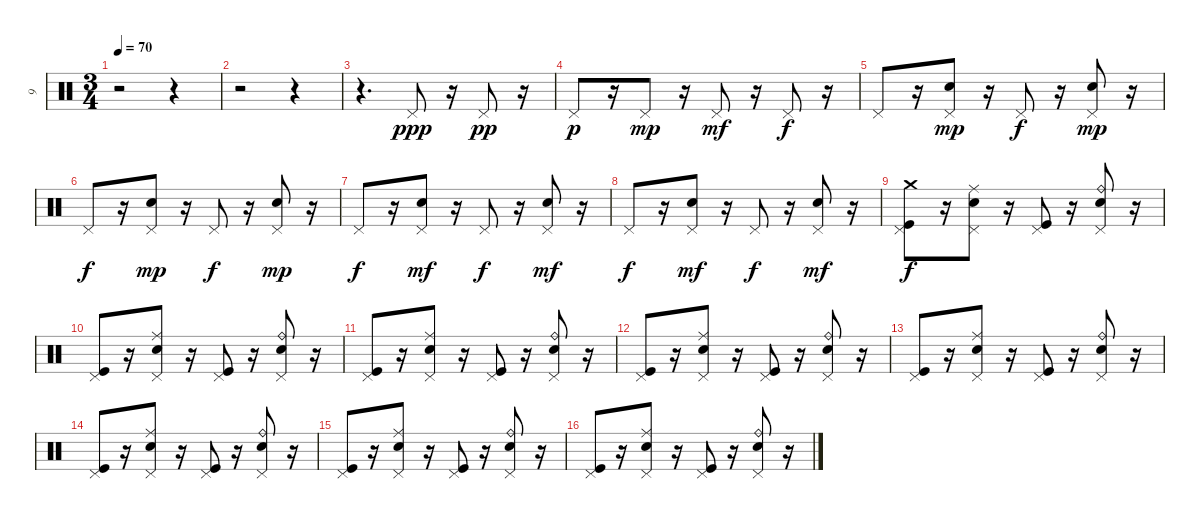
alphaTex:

\track ("9" "9") {instrument percussion}
\staff {score}
\articulation defaults
\ts (3 4)
\tempo 70
\clef neutral
\ks c
r.2{dy mp} r.4 |
r.2 r.4 |
r.4{d} "Pedal Hi-Hat (hit)".8{dy ppp} r.16 "Pedal Hi-Hat (hit)".8{dy pp} r.16 |
"Pedal Hi-Hat (hit)".8{dy p} r.16 "Pedal Hi-Hat (hit)".8{dy mp} r.16 "Pedal Hi-Hat (hit)".8{dy mf} r.16 "Pedal Hi-Hat (hit)".8{dy f} r.16 |
"Pedal Hi-Hat (hit)".8 r.16 ("Pedal Hi-Hat (hit)" "Electric Snare (hit)").8{dy mp} r.16 "Pedal Hi-Hat (hit)".8{dy f} r.16 ("Pedal Hi-Hat (hit)" "Electric Snare (hit)").8{dy mp} r.16 |
"Pedal Hi-Hat (hit)".8{dy f} r.16 ("Pedal Hi-Hat (hit)" "Electric Snare (hit)").8{dy mp} r.16 "Pedal Hi-Hat (hit)".8{dy f} r.16 ("Pedal Hi-Hat (hit)" "Electric Snare (hit)").8{dy mp} r.16 |
"Pedal Hi-Hat (hit)".8{dy f} r.16 ("Pedal Hi-Hat (hit)" "Electric Snare (hit)").8{dy mf} r.16 "Pedal Hi-Hat (hit)".8{dy f} r.16 ("Pedal Hi-Hat (hit)" "Electric Snare (hit)").8{dy mf} r.16 |
"Pedal Hi-Hat (hit)".8{dy f} r.16 ("Pedal Hi-Hat (hit)" "Electric Snare (hit)").8{dy mf} r.16 "Pedal Hi-Hat (hit)".8{dy f} r.16 ("Pedal Hi-Hat (hit)" "Electric Snare (hit)").8{dy mf} r.16 |
("Pedal Hi-Hat (hit)" "Kick (hit)" "Crash medium (hit)").8{dy f} r.16 ("Pedal Hi-Hat (hit)" "Ride (middle)" "Electric Snare (hit)").8 r.16 ("Pedal Hi-Hat (hit)" "Kick (hit)").8 r.16 ("Pedal Hi-Hat (hit)" "Ride (bell)" "Electric Snare (hit)").8 r.16 |
("Pedal Hi-Hat (hit)" "Kick (hit)").8 r.16 ("Pedal Hi-Hat (hit)" "Ride (middle)" "Electric Snare (hit)").8 r.16 ("Pedal Hi-Hat (hit)" "Kick (hit)").8 r.16 ("Pedal Hi-Hat (hit)" "Ride (bell)" "Electric Snare (hit)").8 r.16 |
("Pedal Hi-Hat (hit)" "Kick (hit)").8 r.16 ("Pedal Hi-Hat (hit)" "Ride (middle)" "Electric Snare (hit)").8 r.16 ("Pedal Hi-Hat (hit)" "Kick (hit)").8 r.16 ("Pedal Hi-Hat (hit)" "Ride (bell)" "Electric Snare (hit)").8 r.16 |
("Pedal Hi-Hat (hit)" "Kick (hit)").8 r.16 ("Pedal Hi-Hat (hit)" "Ride (middle)" "Electric Snare (hit)").8 r.16 ("Pedal Hi-Hat (hit)" "Kick (hit)").8 r.16 ("Pedal Hi-Hat (hit)" "Ride (bell)" "Electric Snare (hit)").8 r.16 |
("Pedal Hi-Hat (hit)" "Kick (hit)").8 r.16 ("Pedal Hi-Hat (hit)" "Ride (middle)" "Electric Snare (hit)").8 r.16 ("Pedal Hi-Hat (hit)" "Kick (hit)").8 r.16 ("Pedal Hi-Hat (hit)" "Ride (bell)" "Electric Snare (hit)").8 r.16 |
("Pedal Hi-Hat (hit)" "Kick (hit)").8 r.16 ("Pedal Hi-Hat (hit)" "Ride (middle)" "Electric Snare (hit)").8 r.16 ("Pedal Hi-Hat (hit)" "Kick (hit)").8 r.16 ("Pedal Hi-Hat (hit)" "Ride (bell)" "Electric Snare (hit)").8 r.16 |
("Pedal Hi-Hat (hit)" "Kick (hit)").8 r.16 ("Pedal Hi-Hat (hit)" "Ride (middle)" "Electric Snare (hit)").8 r.16 ("Pedal Hi-Hat (hit)" "Kick (hit)").8 r.16 ("Pedal Hi-Hat (hit)" "Ride (bell)" "Electric Snare (hit)").8 r.16 |
("Pedal Hi-Hat (hit)" "Kick (hit)").8 r.16 ("Pedal Hi-Hat (hit)" "Ride (middle)" "Electric Snare (hit)").8 r.16 ("Pedal Hi-Hat (hit)" "Kick (hit)").8 r.16 ("Pedal Hi-Hat (hit)" "Ride (bell)" "Electric Snare (hit)").8 r.16
